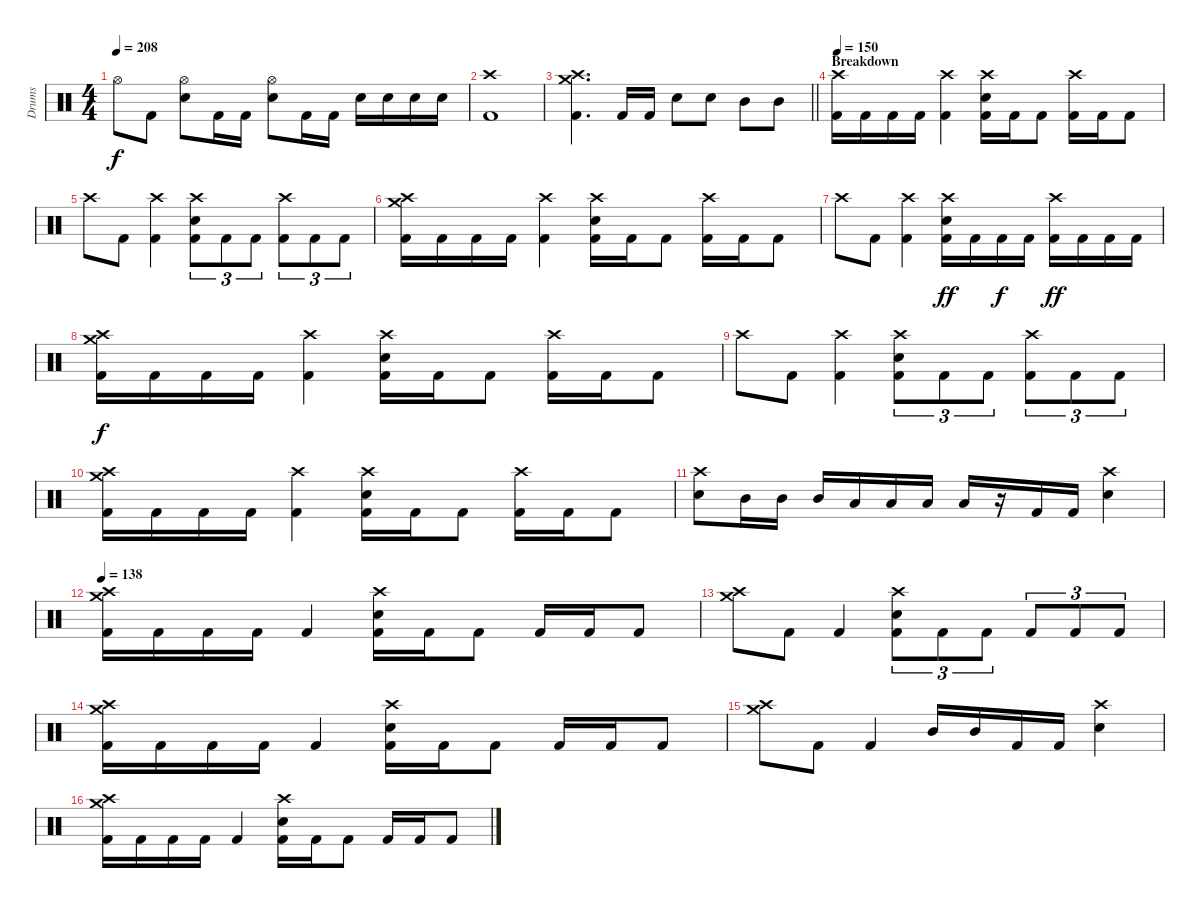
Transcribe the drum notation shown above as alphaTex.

\track ("Drums" "Drums") {instrument percussion}
\staff {score}
\articulation defaults
\ts (4 4)
\tempo 208
\clef neutral
\ks c "Hi-Hat (open)".8{dy f} "Kick (hit) 2".8
("Hi-Hat (open)" "Snare (hit) 2").8 "Kick (hit) 2".16 "Kick (hit) 2".16 ("Hi-Hat (open)" "Snare (hit) 2").8 "Kick (hit) 2".16 "Kick (hit) 2".16 "Snare (hit) 2".16 "Snare (hit) 2".16 "Snare (hit) 2".16 "Snare (hit) 2".16 |
("Crash high (hit)" "Kick (hit) 2").1 |
\barLineRight lightlight
("Crash high (hit)" "Crash medium (hit)" "Kick (hit) 2").4{d} "Kick (hit) 2".16 "Kick (hit) 2".16 "Snare (hit) 2".8 "Snare (hit) 2".8 "Mid Tom (hit)".8 "Mid Tom (hit)".8 |
\section ("" "Breakdown")
\tempo 150
("Crash high (hit)" "Kick (hit) 2").16 "Kick (hit) 2".16 "Kick (hit) 2".16 "Kick (hit) 2".16 ("Crash high (hit)" "Kick (hit) 2").4 ("Crash high (hit)" "Snare (hit) 2" "Kick (hit) 2").16 "Kick (hit) 2".16 "Kick (hit) 2".8 ("Crash high (hit)" "Kick (hit) 2").16 "Kick (hit) 2".16 "Kick (hit) 2".8 |
"Crash high (hit)".8 "Kick (hit) 2".8 ("Crash high (hit)" "Kick (hit) 2").4 ("Crash high (hit)" "Snare (hit) 2" "Kick (hit) 2").8{tu (3 2)} "Kick (hit) 2".8{tu (3 2)} "Kick (hit) 2".8{tu (3 2)} ("Crash high (hit)" "Kick (hit) 2").8{tu (3 2)} "Kick (hit) 2".8{tu (3 2)} "Kick (hit) 2".8{tu (3 2)} |
("Crash high (hit)" "Crash medium (hit)" "Kick (hit) 2").16 "Kick (hit) 2".16 "Kick (hit) 2".16 "Kick (hit) 2".16 ("Crash high (hit)" "Kick (hit) 2").4 ("Crash high (hit)" "Snare (hit) 2" "Kick (hit) 2").16 "Kick (hit) 2".16 "Kick (hit) 2".8 ("Crash high (hit)" "Kick (hit) 2").16 "Kick (hit) 2".16 "Kick (hit) 2".8 |
"Crash high (hit)".8 "Kick (hit) 2".8 ("Crash high (hit)" "Kick (hit) 2").4 ("Crash high (hit)" "Snare (hit) 2" "Kick (hit) 2").16{dy ff} "Kick (hit) 2".16 "Kick (hit) 2".16{dy f} "Kick (hit) 2".16 ("Crash high (hit)" "Kick (hit) 2").16{dy ff} "Kick (hit) 2".16 "Kick (hit) 2".16 "Kick (hit) 2".16 |
("Crash high (hit)" "Crash medium (hit)" "Kick (hit) 2").16{dy f} "Kick (hit) 2".16 "Kick (hit) 2".16 "Kick (hit) 2".16 ("Crash high (hit)" "Kick (hit) 2").4 ("Crash high (hit)" "Snare (hit) 2" "Kick (hit) 2").16 "Kick (hit) 2".16 "Kick (hit) 2".8 ("Crash high (hit)" "Kick (hit) 2").16 "Kick (hit) 2".16 "Kick (hit) 2".8 |
"Crash high (hit)".8 "Kick (hit) 2".8 ("Crash high (hit)" "Kick (hit) 2").4 ("Crash high (hit)" "Snare (hit) 2" "Kick (hit) 2").8{tu (3 2)} "Kick (hit) 2".8{tu (3 2)} "Kick (hit) 2".8{tu (3 2)} ("Crash high (hit)" "Kick (hit) 2").8{tu (3 2)} "Kick (hit) 2".8{tu (3 2)} "Kick (hit) 2".8{tu (3 2)} |
("Crash high (hit)" "Crash medium (hit)" "Kick (hit) 2").16 "Kick (hit) 2".16 "Kick (hit) 2".16 "Kick (hit) 2".16 ("Crash high (hit)" "Kick (hit) 2").4 ("Crash high (hit)" "Snare (hit) 2" "Kick (hit) 2").16 "Kick (hit) 2".16 "Kick (hit) 2".8 ("Crash high (hit)" "Kick (hit) 2").16 "Kick (hit) 2".16 "Kick (hit) 2".8 |
("Crash high (hit)" "Snare (hit) 2").8 "Mid Tom (hit)".16 "Mid Tom (hit)".16 "Mid Tom (hit)".16 "Low Tom (hit)".16 "Low Tom (hit)".16 "Low Tom (hit)".16 "Low Tom (hit)".16 r.16 "Kick (hit) 2".16 "Kick (hit) 2".16 ("Crash high (hit)" "Snare (hit) 2").4 |
\tempo 138
("Crash high (hit)" "Crash medium (hit)" "Kick (hit) 2").16 "Kick (hit) 2".16 "Kick (hit) 2".16 "Kick (hit) 2".16 "Kick (hit) 2".4 ("Crash high (hit)" "Snare (hit) 2" "Kick (hit) 2").16 "Kick (hit) 2".16 "Kick (hit) 2".8 "Kick (hit) 2".16 "Kick (hit) 2".16 "Kick (hit) 2".8 |
("Crash high (hit)" "Crash medium (hit)").8 "Kick (hit) 2".8 "Kick (hit) 2".4 ("Crash high (hit)" "Snare (hit) 2" "Kick (hit) 2").8{tu (3 2)} "Kick (hit) 2".8{tu (3 2)} "Kick (hit) 2".8{tu (3 2)} "Kick (hit) 2".8{tu (3 2)} "Kick (hit) 2".8{tu (3 2)} "Kick (hit) 2".8{tu (3 2)} |
("Crash high (hit)" "Crash medium (hit)" "Kick (hit) 2").16 "Kick (hit) 2".16 "Kick (hit) 2".16 "Kick (hit) 2".16 "Kick (hit) 2".4 ("Crash high (hit)" "Snare (hit) 2" "Kick (hit) 2").16 "Kick (hit) 2".16 "Kick (hit) 2".8 "Kick (hit) 2".16 "Kick (hit) 2".16 "Kick (hit) 2".8 |
("Crash high (hit)" "Crash medium (hit)").8 "Kick (hit) 2".8 "Kick (hit) 2".4 "Mid Tom (hit)".16 "Mid Tom (hit)".16 "Kick (hit) 2".16 "Kick (hit) 2".16 ("Crash high (hit)" "Snare (hit) 2").4 |
("Crash high (hit)" "Crash medium (hit)" "Kick (hit) 2").16 "Kick (hit) 2".16 "Kick (hit) 2".16 "Kick (hit) 2".16 "Kick (hit) 2".4 ("Crash high (hit)" "Snare (hit) 2" "Kick (hit) 2").16 "Kick (hit) 2".16 "Kick (hit) 2".8 "Kick (hit) 2".16 "Kick (hit) 2".16 "Kick (hit) 2".8
